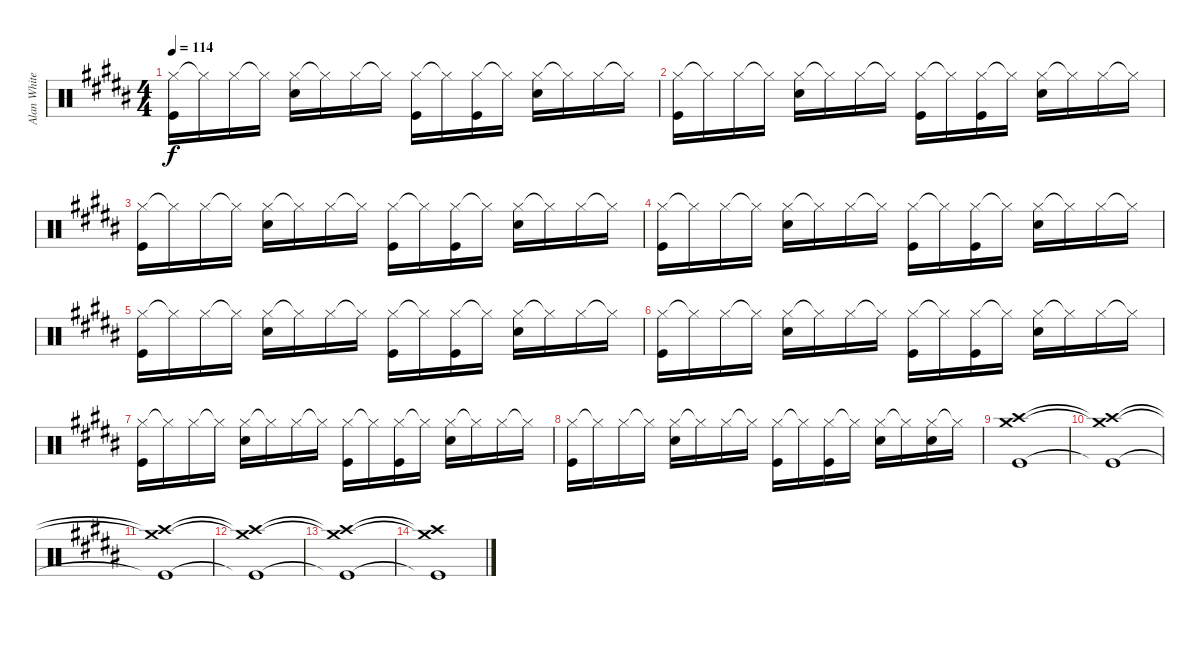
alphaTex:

\track ("Alan White" "Alan White") {instrument percussion}
\staff {score}
\articulation defaults
\ts (4 4)
\tempo 114
\clef neutral
\ks b
("Hi-Hat (closed)" "Kick (hit)").16{dy f} "Hi-Hat (closed)"{t}.16 "Hi-Hat (closed)".16 "Hi-Hat (closed)"{t}.16 ("Hi-Hat (closed)" "Snare (hit) 2").16 "Hi-Hat (closed)"{t}.16 "Hi-Hat (closed)".16 "Hi-Hat (closed)"{t}.16 ("Hi-Hat (closed)" "Kick (hit)").16 "Hi-Hat (closed)"{t}.16 ("Hi-Hat (closed)" "Kick (hit)").16 "Hi-Hat (closed)"{t}.16 ("Hi-Hat (closed)" "Snare (hit) 2").16 "Hi-Hat (closed)"{t}.16 "Hi-Hat (closed)".16 "Hi-Hat (closed)"{t}.16 |
("Hi-Hat (closed)" "Kick (hit)").16 "Hi-Hat (closed)"{t}.16 "Hi-Hat (closed)".16 "Hi-Hat (closed)"{t}.16 ("Hi-Hat (closed)" "Snare (hit) 2").16 "Hi-Hat (closed)"{t}.16 "Hi-Hat (closed)".16 "Hi-Hat (closed)"{t}.16 ("Hi-Hat (closed)" "Kick (hit)").16 "Hi-Hat (closed)"{t}.16 ("Hi-Hat (closed)" "Kick (hit)").16 "Hi-Hat (closed)"{t}.16 ("Hi-Hat (closed)" "Snare (hit) 2").16 "Hi-Hat (closed)"{t}.16 "Hi-Hat (closed)".16 "Hi-Hat (closed)"{t}.16 |
("Hi-Hat (closed)" "Kick (hit)").16 "Hi-Hat (closed)"{t}.16 "Hi-Hat (closed)".16 "Hi-Hat (closed)"{t}.16 ("Hi-Hat (closed)" "Snare (hit) 2").16 "Hi-Hat (closed)"{t}.16 "Hi-Hat (closed)".16 "Hi-Hat (closed)"{t}.16 ("Hi-Hat (closed)" "Kick (hit)").16 "Hi-Hat (closed)"{t}.16 ("Hi-Hat (closed)" "Kick (hit)").16 "Hi-Hat (closed)"{t}.16 ("Hi-Hat (closed)" "Snare (hit) 2").16 "Hi-Hat (closed)"{t}.16 "Hi-Hat (closed)".16 "Hi-Hat (closed)"{t}.16 |
("Hi-Hat (closed)" "Kick (hit)").16 "Hi-Hat (closed)"{t}.16 "Hi-Hat (closed)".16 "Hi-Hat (closed)"{t}.16 ("Hi-Hat (closed)" "Snare (hit) 2").16 "Hi-Hat (closed)"{t}.16 "Hi-Hat (closed)".16 "Hi-Hat (closed)"{t}.16 ("Hi-Hat (closed)" "Kick (hit)").16 "Hi-Hat (closed)"{t}.16 ("Hi-Hat (closed)" "Kick (hit)").16 "Hi-Hat (closed)"{t}.16 ("Hi-Hat (closed)" "Snare (hit) 2").16 "Hi-Hat (closed)"{t}.16 "Hi-Hat (closed)".16 "Hi-Hat (closed)"{t}.16 |
("Hi-Hat (closed)" "Kick (hit)").16 "Hi-Hat (closed)"{t}.16 "Hi-Hat (closed)".16 "Hi-Hat (closed)"{t}.16 ("Hi-Hat (closed)" "Snare (hit) 2").16 "Hi-Hat (closed)"{t}.16 "Hi-Hat (closed)".16 "Hi-Hat (closed)"{t}.16 ("Hi-Hat (closed)" "Kick (hit)").16 "Hi-Hat (closed)"{t}.16 ("Hi-Hat (closed)" "Kick (hit)").16 "Hi-Hat (closed)"{t}.16 ("Hi-Hat (closed)" "Snare (hit) 2").16 "Hi-Hat (closed)"{t}.16 "Hi-Hat (closed)".16 "Hi-Hat (closed)"{t}.16 |
("Hi-Hat (closed)" "Kick (hit)").16 "Hi-Hat (closed)"{t}.16 "Hi-Hat (closed)".16 "Hi-Hat (closed)"{t}.16 ("Hi-Hat (closed)" "Snare (hit) 2").16 "Hi-Hat (closed)"{t}.16 "Hi-Hat (closed)".16 "Hi-Hat (closed)"{t}.16 ("Hi-Hat (closed)" "Kick (hit)").16 "Hi-Hat (closed)"{t}.16 ("Hi-Hat (closed)" "Kick (hit)").16 "Hi-Hat (closed)"{t}.16 ("Hi-Hat (closed)" "Snare (hit) 2").16 "Hi-Hat (closed)"{t}.16 "Hi-Hat (closed)".16 "Hi-Hat (closed)"{t}.16 |
("Hi-Hat (closed)" "Kick (hit)").16 "Hi-Hat (closed)"{t}.16 "Hi-Hat (closed)".16 "Hi-Hat (closed)"{t}.16 ("Hi-Hat (closed)" "Snare (hit) 2").16 "Hi-Hat (closed)"{t}.16 "Hi-Hat (closed)".16 "Hi-Hat (closed)"{t}.16 ("Hi-Hat (closed)" "Kick (hit)").16 "Hi-Hat (closed)"{t}.16 ("Hi-Hat (closed)" "Kick (hit)").16 "Hi-Hat (closed)"{t}.16 ("Hi-Hat (closed)" "Snare (hit) 2").16 "Hi-Hat (closed)"{t}.16 "Hi-Hat (closed)".16 "Hi-Hat (closed)"{t}.16 |
("Hi-Hat (closed)" "Kick (hit)").16 "Hi-Hat (closed)"{t}.16 "Hi-Hat (closed)".16 "Hi-Hat (closed)"{t}.16 ("Hi-Hat (closed)" "Snare (hit) 2").16 "Hi-Hat (closed)"{t}.16 "Hi-Hat (closed)".16 "Hi-Hat (closed)"{t}.16 ("Hi-Hat (closed)" "Kick (hit)").16 "Hi-Hat (closed)"{t}.16 ("Hi-Hat (closed)" "Kick (hit)").16 "Hi-Hat (closed)"{t}.16 ("Hi-Hat (closed)" "Snare (hit) 2").16 "Hi-Hat (closed)"{t}.16 ("Hi-Hat (closed)" "Snare (hit) 2").16 "Hi-Hat (closed)"{t}.16 |
("Crash high (hit)" "Crash medium (hit)" "Kick (hit)").1 |
("Crash high (hit)"{t} "Crash medium (hit)"{t} "Kick (hit)"{t}).1 |
("Crash high (hit)"{t} "Crash medium (hit)"{t} "Kick (hit)"{t}).1 |
("Crash high (hit)"{t} "Crash medium (hit)"{t} "Kick (hit)"{t}).1 |
("Crash high (hit)"{t} "Crash medium (hit)"{t} "Kick (hit)"{t}).1 |
("Crash high (hit)"{t} "Crash medium (hit)"{t} "Kick (hit)"{t}).1
